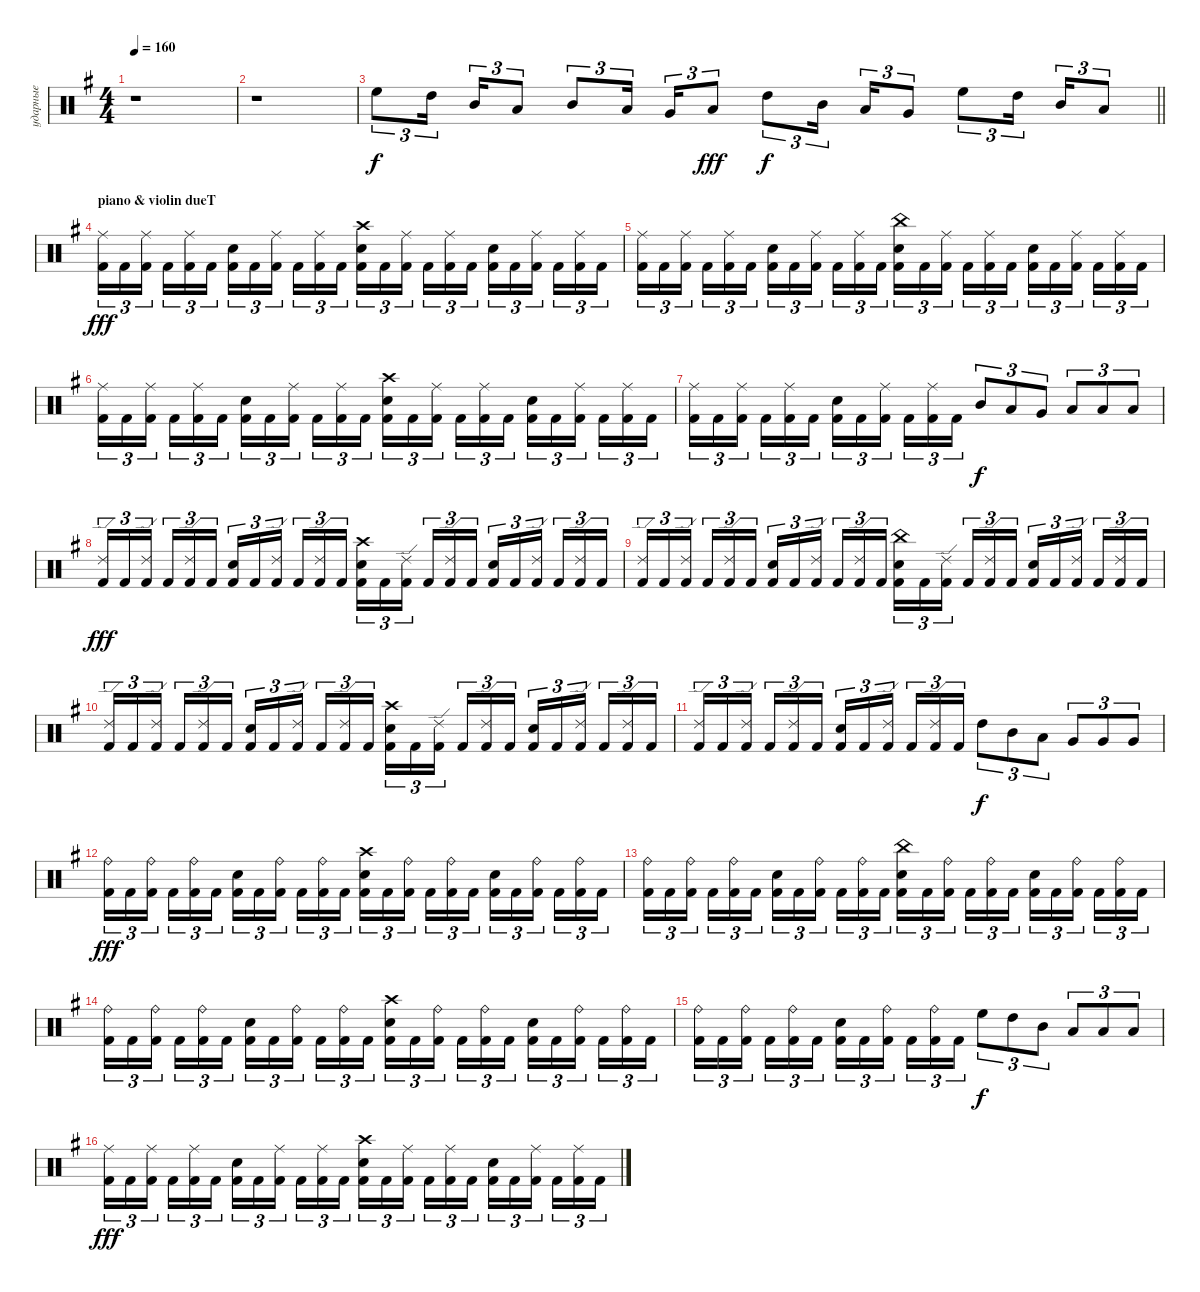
\track ("ударные" "ударные") {instrument percussion}
\staff {score}
\articulation defaults
\ts (4 4)
\tempo 160
\clef neutral
\ks eminor
r.1{dy fff} |
r.1 |
\barLineRight lightlight "High Floor Tom (hit)".8{tu (3 2) dy f} "High Tom (hit)".16{tu (3 2) beam splitsecondary} "Mid Tom (hit)".16{tu (3 2)} "Low Tom (hit)".8{tu (3 2)} "Mid Tom (hit)".8{tu (3 2)} "Low Tom (hit)".16{tu (3 2) beam splitsecondary} "Very Low Tom (hit)".16{tu (3 2)} "Low Floor Tom (hit)".8{tu (3 2) dy fff} "High Tom (hit)".8{tu (3 2) dy f} "Mid Tom (hit)".16{tu (3 2) beam splitsecondary} "Low Tom (hit)".16{tu (3 2)} "Very Low Tom (hit)".8{tu (3 2)} "High Floor Tom (hit)".8{tu (3 2)} "High Tom (hit)".16{tu (3 2) beam splitsecondary} "Mid Tom (hit)".16{tu (3 2)} "Low Tom (hit)".8{tu (3 2)}
|
\section ("" "piano & violin dueT")
("Ride (middle)" "Kick (hit) 2").16{tu (3 2) dy fff} "Kick (hit) 2".16{tu (3 2)} ("Ride (middle)" "Kick (hit) 2").16{tu (3 2) beam splitsecondary} "Kick (hit) 2".16{tu (3 2)} ("Ride (middle)" "Kick (hit) 2").16{tu (3 2)} "Kick (hit) 2".16{tu (3 2)} ("Electric Snare (hit)" "Kick (hit) 2").16{tu (3 2)} "Kick (hit) 2".16{tu (3 2)} ("Ride (middle)" "Kick (hit) 2").16{tu (3 2) beam splitsecondary} "Kick (hit) 2".16{tu (3 2)} ("Ride (middle)" "Kick (hit) 2").16{tu (3 2)} "Kick (hit) 2".16{tu (3 2)} ("Crash high (hit)" "Electric Snare (hit)" "Kick (hit) 2").16{tu (3 2)} "Kick (hit) 2".16{tu (3 2)} ("Ride (middle)" "Kick (hit) 2").16{tu (3 2) beam splitsecondary} "Kick (hit) 2".16{tu (3 2)} ("Ride (middle)" "Kick (hit) 2").16{tu (3 2)} "Kick (hit) 2".16{tu (3 2)} ("Electric Snare (hit)" "Kick (hit) 2").16{tu (3 2)} "Kick (hit) 2".16{tu (3 2)} ("Ride (middle)" "Kick (hit) 2").16{tu (3 2) beam splitsecondary} "Kick (hit) 2".16{tu (3 2)} ("Ride (middle)" "Kick (hit) 2").16{tu (3 2)} "Kick (hit) 2".16{tu (3 2)} |
("Ride (middle)" "Kick (hit) 2").16{tu (3 2)} "Kick (hit) 2".16{tu (3 2)} ("Ride (middle)" "Kick (hit) 2").16{tu (3 2) beam splitsecondary} "Kick (hit) 2".16{tu (3 2)} ("Ride (middle)" "Kick (hit) 2").16{tu (3 2)} "Kick (hit) 2".16{tu (3 2)} ("Electric Snare (hit)" "Kick (hit) 2").16{tu (3 2)} "Kick (hit) 2".16{tu (3 2)} ("Ride (middle)" "Kick (hit) 2").16{tu (3 2) beam splitsecondary} "Kick (hit) 2".16{tu (3 2)} ("Ride (middle)" "Kick (hit) 2").16{tu (3 2)} "Kick (hit) 2".16{tu (3 2)} ("China (hit)" "Electric Snare (hit)" "Kick (hit) 2").16{tu (3 2)} "Kick (hit) 2".16{tu (3 2)} ("Ride (middle)" "Kick (hit) 2").16{tu (3 2) beam splitsecondary} "Kick (hit) 2".16{tu (3 2)} ("Ride (middle)" "Kick (hit) 2").16{tu (3 2)} "Kick (hit) 2".16{tu (3 2)} ("Electric Snare (hit)" "Kick (hit) 2").16{tu (3 2)} "Kick (hit) 2".16{tu (3 2)} ("Ride (middle)" "Kick (hit) 2").16{tu (3 2) beam splitsecondary} "Kick (hit) 2".16{tu (3 2)} ("Ride (middle)" "Kick (hit) 2").16{tu (3 2)} "Kick (hit) 2".16{tu (3 2)} |
("Ride (middle)" "Kick (hit) 2").16{tu (3 2)} "Kick (hit) 2".16{tu (3 2)} ("Ride (middle)" "Kick (hit) 2").16{tu (3 2) beam splitsecondary} "Kick (hit) 2".16{tu (3 2)} ("Ride (middle)" "Kick (hit) 2").16{tu (3 2)} "Kick (hit) 2".16{tu (3 2)} ("Electric Snare (hit)" "Kick (hit) 2").16{tu (3 2)} "Kick (hit) 2".16{tu (3 2)} ("Ride (middle)" "Kick (hit) 2").16{tu (3 2) beam splitsecondary} "Kick (hit) 2".16{tu (3 2)} ("Ride (middle)" "Kick (hit) 2").16{tu (3 2)} "Kick (hit) 2".16{tu (3 2)} ("Crash high (hit)" "Electric Snare (hit)" "Kick (hit) 2").16{tu (3 2)} "Kick (hit) 2".16{tu (3 2)} ("Ride (middle)" "Kick (hit) 2").16{tu (3 2) beam splitsecondary} "Kick (hit) 2".16{tu (3 2)} ("Ride (middle)" "Kick (hit) 2").16{tu (3 2)} "Kick (hit) 2".16{tu (3 2)} ("Electric Snare (hit)" "Kick (hit) 2").16{tu (3 2)} "Kick (hit) 2".16{tu (3 2)} ("Ride (middle)" "Kick (hit) 2").16{tu (3 2) beam splitsecondary} "Kick (hit) 2".16{tu (3 2)} ("Ride (middle)" "Kick (hit) 2").16{tu (3 2)} "Kick (hit) 2".16{tu (3 2)} |
("Ride (middle)" "Kick (hit) 2").16{tu (3 2)} "Kick (hit) 2".16{tu (3 2)} ("Ride (middle)" "Kick (hit) 2").16{tu (3 2) beam splitsecondary} "Kick (hit) 2".16{tu (3 2)} ("Ride (middle)" "Kick (hit) 2").16{tu (3 2)} "Kick (hit) 2".16{tu (3 2)} ("Electric Snare (hit)" "Kick (hit) 2").16{tu (3 2)} "Kick (hit) 2".16{tu (3 2)} ("Ride (middle)" "Kick (hit) 2").16{tu (3 2) beam splitsecondary} "Kick (hit) 2".16{tu (3 2)} ("Ride (middle)" "Kick (hit) 2").16{tu (3 2)} "Kick (hit) 2".16{tu (3 2)} "Mid Tom (hit)".8{tu (3 2) dy f} "Low Tom (hit)".8{tu (3 2)} "Very Low Tom (hit)".8{tu (3 2)} "Low Floor Tom (hit)".8{tu (3 2)} "Low Floor Tom (hit)".8{tu (3 2)} "Low Floor Tom (hit)".8{tu (3 2)} |
("Ride (edge) 2" "Kick (hit) 2").16{tu (3 2) dy fff} "Kick (hit) 2".16{tu (3 2)} ("Ride (edge) 2" "Kick (hit) 2").16{tu (3 2) beam splitsecondary} "Kick (hit) 2".16{tu (3 2)} ("Ride (edge) 2" "Kick (hit) 2").16{tu (3 2)} "Kick (hit) 2".16{tu (3 2)} ("Electric Snare (hit)" "Kick (hit) 2").16{tu (3 2)} "Kick (hit) 2".16{tu (3 2)} ("Ride (edge) 2" "Kick (hit) 2").16{tu (3 2) beam splitsecondary} "Kick (hit) 2".16{tu (3 2)} ("Ride (edge) 2" "Kick (hit) 2").16{tu (3 2)} "Kick (hit) 2".16{tu (3 2)} ("Crash high (hit)" "Electric Snare (hit)" "Kick (hit) 2").16{tu (3 2)} "Kick (hit) 2".16{tu (3 2)} ("Ride (edge) 2" "Kick (hit) 2").16{tu (3 2) beam splitsecondary} "Kick (hit) 2".16{tu (3 2)} ("Ride (edge) 2" "Kick (hit) 2").16{tu (3 2)} "Kick (hit) 2".16{tu (3 2)} ("Electric Snare (hit)" "Kick (hit) 2").16{tu (3 2)} "Kick (hit) 2".16{tu (3 2)} ("Ride (edge) 2" "Kick (hit) 2").16{tu (3 2) beam splitsecondary} "Kick (hit) 2".16{tu (3 2)} ("Ride (edge) 2" "Kick (hit) 2").16{tu (3 2)} "Kick (hit) 2".16{tu (3 2)} |
("Ride (edge) 2" "Kick (hit) 2").16{tu (3 2)} "Kick (hit) 2".16{tu (3 2)} ("Ride (edge) 2" "Kick (hit) 2").16{tu (3 2) beam splitsecondary} "Kick (hit) 2".16{tu (3 2)} ("Ride (edge) 2" "Kick (hit) 2").16{tu (3 2)} "Kick (hit) 2".16{tu (3 2)} ("Electric Snare (hit)" "Kick (hit) 2").16{tu (3 2)} "Kick (hit) 2".16{tu (3 2)} ("Ride (edge) 2" "Kick (hit) 2").16{tu (3 2) beam splitsecondary} "Kick (hit) 2".16{tu (3 2)} ("Ride (edge) 2" "Kick (hit) 2").16{tu (3 2)} "Kick (hit) 2".16{tu (3 2)} ("China (hit)" "Electric Snare (hit)" "Kick (hit) 2").16{tu (3 2)} "Kick (hit) 2".16{tu (3 2)} ("Ride (edge) 2" "Kick (hit) 2").16{tu (3 2) beam splitsecondary} "Kick (hit) 2".16{tu (3 2)} ("Ride (edge) 2" "Kick (hit) 2").16{tu (3 2)} "Kick (hit) 2".16{tu (3 2)} ("Electric Snare (hit)" "Kick (hit) 2").16{tu (3 2)} "Kick (hit) 2".16{tu (3 2)} ("Ride (edge) 2" "Kick (hit) 2").16{tu (3 2) beam splitsecondary} "Kick (hit) 2".16{tu (3 2)} ("Ride (edge) 2" "Kick (hit) 2").16{tu (3 2)} "Kick (hit) 2".16{tu (3 2)} |
("Ride (edge) 2" "Kick (hit) 2").16{tu (3 2)} "Kick (hit) 2".16{tu (3 2)} ("Ride (edge) 2" "Kick (hit) 2").16{tu (3 2) beam splitsecondary} "Kick (hit) 2".16{tu (3 2)} ("Ride (edge) 2" "Kick (hit) 2").16{tu (3 2)} "Kick (hit) 2".16{tu (3 2)} ("Electric Snare (hit)" "Kick (hit) 2").16{tu (3 2)} "Kick (hit) 2".16{tu (3 2)} ("Ride (edge) 2" "Kick (hit) 2").16{tu (3 2) beam splitsecondary} "Kick (hit) 2".16{tu (3 2)} ("Ride (edge) 2" "Kick (hit) 2").16{tu (3 2)} "Kick (hit) 2".16{tu (3 2)} ("Crash high (hit)" "Electric Snare (hit)" "Kick (hit) 2").16{tu (3 2)} "Kick (hit) 2".16{tu (3 2)} ("Ride (edge) 2" "Kick (hit) 2").16{tu (3 2) beam splitsecondary} "Kick (hit) 2".16{tu (3 2)} ("Ride (edge) 2" "Kick (hit) 2").16{tu (3 2)} "Kick (hit) 2".16{tu (3 2)} ("Electric Snare (hit)" "Kick (hit) 2").16{tu (3 2)} "Kick (hit) 2".16{tu (3 2)} ("Ride (edge) 2" "Kick (hit) 2").16{tu (3 2) beam splitsecondary} "Kick (hit) 2".16{tu (3 2)} ("Ride (edge) 2" "Kick (hit) 2").16{tu (3 2)} "Kick (hit) 2".16{tu (3 2)} |
("Ride (edge) 2" "Kick (hit) 2").16{tu (3 2)} "Kick (hit) 2".16{tu (3 2)} ("Ride (edge) 2" "Kick (hit) 2").16{tu (3 2) beam splitsecondary} "Kick (hit) 2".16{tu (3 2)} ("Ride (edge) 2" "Kick (hit) 2").16{tu (3 2)} "Kick (hit) 2".16{tu (3 2)} ("Electric Snare (hit)" "Kick (hit) 2").16{tu (3 2)} "Kick (hit) 2".16{tu (3 2)} ("Ride (edge) 2" "Kick (hit) 2").16{tu (3 2) beam splitsecondary} "Kick (hit) 2".16{tu (3 2)} ("Ride (edge) 2" "Kick (hit) 2").16{tu (3 2)} "Kick (hit) 2".16{tu (3 2)} "High Tom (hit)".8{tu (3 2) dy f} "Mid Tom (hit)".8{tu (3 2)} "Low Tom (hit)".8{tu (3 2)} "Very Low Tom (hit)".8{tu (3 2)} "Very Low Tom (hit)".8{tu (3 2)} "Very Low Tom (hit)".8{tu (3 2)} |
("Ride (bell)" "Kick (hit) 2").16{tu (3 2) dy fff} "Kick (hit) 2".16{tu (3 2)} ("Ride (bell)" "Kick (hit) 2").16{tu (3 2) beam splitsecondary} "Kick (hit) 2".16{tu (3 2)} ("Ride (bell)" "Kick (hit) 2").16{tu (3 2)} "Kick (hit) 2".16{tu (3 2)} ("Electric Snare (hit)" "Kick (hit) 2").16{tu (3 2)} "Kick (hit) 2".16{tu (3 2)} ("Ride (bell)" "Kick (hit) 2").16{tu (3 2) beam splitsecondary} "Kick (hit) 2".16{tu (3 2)} ("Ride (bell)" "Kick (hit) 2").16{tu (3 2)} "Kick (hit) 2".16{tu (3 2)} ("Crash high (hit)" "Electric Snare (hit)" "Kick (hit) 2").16{tu (3 2)} "Kick (hit) 2".16{tu (3 2)} ("Ride (bell)" "Kick (hit) 2").16{tu (3 2) beam splitsecondary} "Kick (hit) 2".16{tu (3 2)} ("Ride (bell)" "Kick (hit) 2").16{tu (3 2)} "Kick (hit) 2".16{tu (3 2)} ("Electric Snare (hit)" "Kick (hit) 2").16{tu (3 2)} "Kick (hit) 2".16{tu (3 2)} ("Ride (bell)" "Kick (hit) 2").16{tu (3 2) beam splitsecondary} "Kick (hit) 2".16{tu (3 2)} ("Ride (bell)" "Kick (hit) 2").16{tu (3 2)} "Kick (hit) 2".16{tu (3 2)} |
("Ride (bell)" "Kick (hit) 2").16{tu (3 2)} "Kick (hit) 2".16{tu (3 2)} ("Ride (bell)" "Kick (hit) 2").16{tu (3 2) beam splitsecondary} "Kick (hit) 2".16{tu (3 2)} ("Ride (bell)" "Kick (hit) 2").16{tu (3 2)} "Kick (hit) 2".16{tu (3 2)} ("Electric Snare (hit)" "Kick (hit) 2").16{tu (3 2)} "Kick (hit) 2".16{tu (3 2)} ("Ride (bell)" "Kick (hit) 2").16{tu (3 2) beam splitsecondary} "Kick (hit) 2".16{tu (3 2)} ("Ride (bell)" "Kick (hit) 2").16{tu (3 2)} "Kick (hit) 2".16{tu (3 2)} ("China (hit)" "Electric Snare (hit)" "Kick (hit) 2").16{tu (3 2)} "Kick (hit) 2".16{tu (3 2)} ("Ride (bell)" "Kick (hit) 2").16{tu (3 2) beam splitsecondary} "Kick (hit) 2".16{tu (3 2)} ("Ride (bell)" "Kick (hit) 2").16{tu (3 2)} "Kick (hit) 2".16{tu (3 2)} ("Electric Snare (hit)" "Kick (hit) 2").16{tu (3 2)} "Kick (hit) 2".16{tu (3 2)} ("Ride (bell)" "Kick (hit) 2").16{tu (3 2) beam splitsecondary} "Kick (hit) 2".16{tu (3 2)} ("Ride (bell)" "Kick (hit) 2").16{tu (3 2)} "Kick (hit) 2".16{tu (3 2)} |
("Ride (bell)" "Kick (hit) 2").16{tu (3 2)} "Kick (hit) 2".16{tu (3 2)} ("Ride (bell)" "Kick (hit) 2").16{tu (3 2) beam splitsecondary} "Kick (hit) 2".16{tu (3 2)} ("Ride (bell)" "Kick (hit) 2").16{tu (3 2)} "Kick (hit) 2".16{tu (3 2)} ("Electric Snare (hit)" "Kick (hit) 2").16{tu (3 2)} "Kick (hit) 2".16{tu (3 2)} ("Ride (bell)" "Kick (hit) 2").16{tu (3 2) beam splitsecondary} "Kick (hit) 2".16{tu (3 2)} ("Ride (bell)" "Kick (hit) 2").16{tu (3 2)} "Kick (hit) 2".16{tu (3 2)} ("Crash high (hit)" "Electric Snare (hit)" "Kick (hit) 2").16{tu (3 2)} "Kick (hit) 2".16{tu (3 2)} ("Ride (bell)" "Kick (hit) 2").16{tu (3 2) beam splitsecondary} "Kick (hit) 2".16{tu (3 2)} ("Ride (bell)" "Kick (hit) 2").16{tu (3 2)} "Kick (hit) 2".16{tu (3 2)} ("Electric Snare (hit)" "Kick (hit) 2").16{tu (3 2)} "Kick (hit) 2".16{tu (3 2)} ("Ride (bell)" "Kick (hit) 2").16{tu (3 2) beam splitsecondary} "Kick (hit) 2".16{tu (3 2)} ("Ride (bell)" "Kick (hit) 2").16{tu (3 2)} "Kick (hit) 2".16{tu (3 2)} |
("Ride (bell)" "Kick (hit) 2").16{tu (3 2)} "Kick (hit) 2".16{tu (3 2)} ("Ride (bell)" "Kick (hit) 2").16{tu (3 2) beam splitsecondary} "Kick (hit) 2".16{tu (3 2)} ("Ride (bell)" "Kick (hit) 2").16{tu (3 2)} "Kick (hit) 2".16{tu (3 2)} ("Electric Snare (hit)" "Kick (hit) 2").16{tu (3 2)} "Kick (hit) 2".16{tu (3 2)} ("Ride (bell)" "Kick (hit) 2").16{tu (3 2) beam splitsecondary} "Kick (hit) 2".16{tu (3 2)} ("Ride (bell)" "Kick (hit) 2").16{tu (3 2)} "Kick (hit) 2".16{tu (3 2)} "High Floor Tom (hit)".8{tu (3 2) dy f} "High Tom (hit)".8{tu (3 2)} "Mid Tom (hit)".8{tu (3 2)} "Low Tom (hit)".8{tu (3 2)} "Low Tom (hit)".8{tu (3 2)} "Low Tom (hit)".8{tu (3 2)} |
("Ride (middle)" "Kick (hit) 2").16{tu (3 2) dy fff} "Kick (hit) 2".16{tu (3 2)} ("Ride (middle)" "Kick (hit) 2").16{tu (3 2) beam splitsecondary} "Kick (hit) 2".16{tu (3 2)} ("Ride (middle)" "Kick (hit) 2").16{tu (3 2)} "Kick (hit) 2".16{tu (3 2)} ("Electric Snare (hit)" "Kick (hit) 2").16{tu (3 2)} "Kick (hit) 2".16{tu (3 2)} ("Ride (middle)" "Kick (hit) 2").16{tu (3 2) beam splitsecondary} "Kick (hit) 2".16{tu (3 2)} ("Ride (middle)" "Kick (hit) 2").16{tu (3 2)} "Kick (hit) 2".16{tu (3 2)} ("Crash high (hit)" "Electric Snare (hit)" "Kick (hit) 2").16{tu (3 2)} "Kick (hit) 2".16{tu (3 2)} ("Ride (middle)" "Kick (hit) 2").16{tu (3 2) beam splitsecondary} "Kick (hit) 2".16{tu (3 2)} ("Ride (middle)" "Kick (hit) 2").16{tu (3 2)} "Kick (hit) 2".16{tu (3 2)} ("Electric Snare (hit)" "Kick (hit) 2").16{tu (3 2)} "Kick (hit) 2".16{tu (3 2)} ("Ride (middle)" "Kick (hit) 2").16{tu (3 2) beam splitsecondary} "Kick (hit) 2".16{tu (3 2)} ("Ride (middle)" "Kick (hit) 2").16{tu (3 2)} "Kick (hit) 2".16{tu (3 2)}
